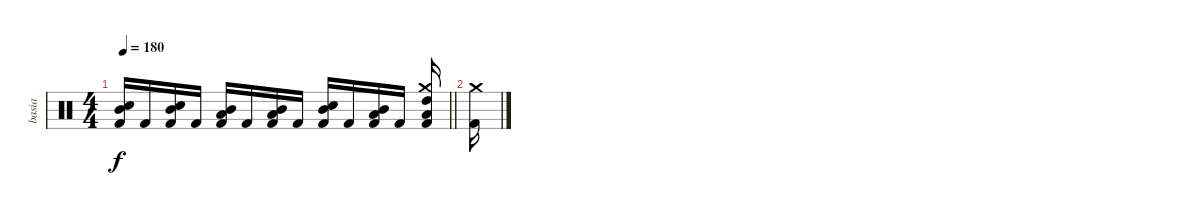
\track ("basia" "basia") {instrument percussion}
\staff {score}
\articulation defaults
\ts (4 4)
\tempo 180
\clef neutral
\barLineRight lightlight
\ks c
("Snare (hit) 2" "Mid Tom (hit)" "Kick (hit) 2").16{dy f} "Kick (hit) 2".16 ("Snare (hit) 2" "Mid Tom (hit)" "Kick (hit) 2").16 "Kick (hit) 2".16 ("Low Tom (hit)" "Mid Tom (hit)" "Kick (hit) 2").16 "Kick (hit) 2".16 ("Low Tom (hit)" "Mid Tom (hit)" "Kick (hit) 2").16 "Kick (hit) 2".16 ("Snare (hit) 2" "Mid Tom (hit)" "Kick (hit) 2").16 "Kick (hit) 2".16 ("Mid Tom (hit)" "Low Tom (hit)" "Kick (hit) 2").16 "Kick (hit) 2".16 ("Crash medium (hit)" "High Tom (hit)" "Low Tom (hit)" "Kick (hit) 2").16 |
("Crash medium (hit)" "Kick (hit) 2").16
